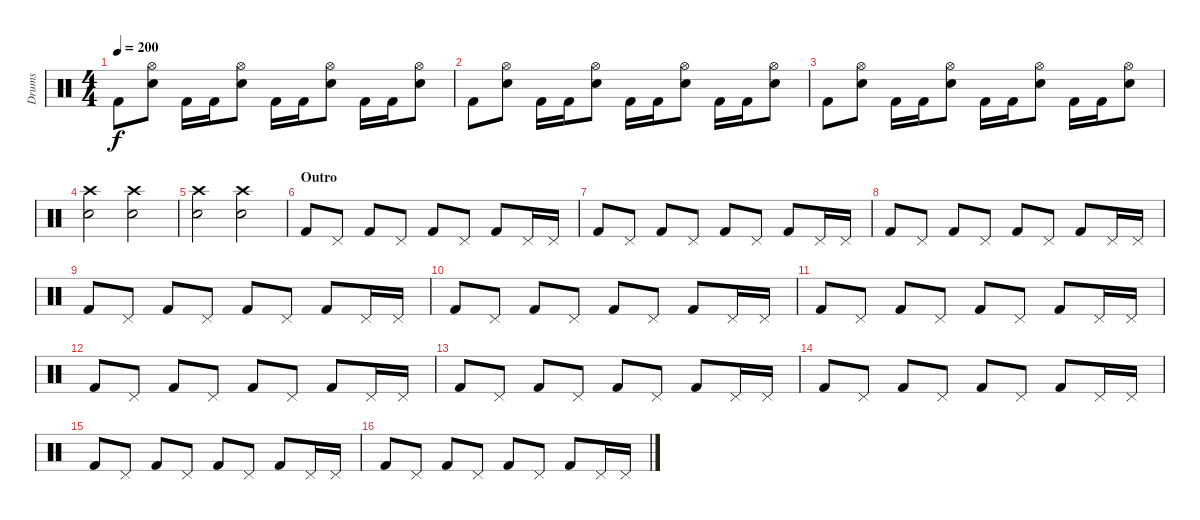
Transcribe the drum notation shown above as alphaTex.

\track ("Drums" "Drums") {instrument percussion}
\staff {score}
\articulation defaults
\ts (4 4)
\tempo 200
\clef neutral
\ks c "Kick (hit) 2".8{dy f}
("Hi-Hat (open)" "Snare (hit) 2").8 "Kick (hit) 2".16 "Kick (hit) 2".16 ("Hi-Hat (open)" "Snare (hit) 2").8 "Kick (hit) 2".16 "Kick (hit) 2".16 ("Hi-Hat (open)" "Snare (hit) 2").8 "Kick (hit) 2".16 "Kick (hit) 2".16 ("Hi-Hat (open)" "Snare (hit) 2").8 |
"Kick (hit) 2".8 ("Hi-Hat (open)" "Snare (hit) 2").8 "Kick (hit) 2".16 "Kick (hit) 2".16 ("Hi-Hat (open)" "Snare (hit) 2").8 "Kick (hit) 2".16 "Kick (hit) 2".16 ("Hi-Hat (open)" "Snare (hit) 2").8 "Kick (hit) 2".16 "Kick (hit) 2".16 ("Hi-Hat (open)" "Snare (hit) 2").8 |
"Kick (hit) 2".8 ("Hi-Hat (open)" "Snare (hit) 2").8 "Kick (hit) 2".16 "Kick (hit) 2".16 ("Hi-Hat (open)" "Snare (hit) 2").8 "Kick (hit) 2".16 "Kick (hit) 2".16 ("Hi-Hat (open)" "Snare (hit) 2").8 "Kick (hit) 2".16 "Kick (hit) 2".16 ("Hi-Hat (open)" "Snare (hit) 2").8 |
("Crash high (hit)" "Snare (hit) 2").2 ("Crash high (hit)" "Snare (hit) 2").2 |
("Crash high (hit)" "Snare (hit) 2").2 ("Crash high (hit)" "Snare (hit) 2").2 |
\section ("" "Outro")
"Kick (hit) 2".8 "Pedal Hi-Hat (hit)".8 "Kick (hit) 2".8 "Pedal Hi-Hat (hit)".8 "Kick (hit) 2".8 "Pedal Hi-Hat (hit)".8 "Kick (hit) 2".8 "Pedal Hi-Hat (hit)".16 "Pedal Hi-Hat (hit)".16 |
"Kick (hit) 2".8 "Pedal Hi-Hat (hit)".8 "Kick (hit) 2".8 "Pedal Hi-Hat (hit)".8 "Kick (hit) 2".8 "Pedal Hi-Hat (hit)".8 "Kick (hit) 2".8 "Pedal Hi-Hat (hit)".16 "Pedal Hi-Hat (hit)".16 |
"Kick (hit) 2".8 "Pedal Hi-Hat (hit)".8 "Kick (hit) 2".8 "Pedal Hi-Hat (hit)".8 "Kick (hit) 2".8 "Pedal Hi-Hat (hit)".8 "Kick (hit) 2".8 "Pedal Hi-Hat (hit)".16 "Pedal Hi-Hat (hit)".16 |
"Kick (hit) 2".8 "Pedal Hi-Hat (hit)".8 "Kick (hit) 2".8 "Pedal Hi-Hat (hit)".8 "Kick (hit) 2".8 "Pedal Hi-Hat (hit)".8 "Kick (hit) 2".8 "Pedal Hi-Hat (hit)".16 "Pedal Hi-Hat (hit)".16 |
"Kick (hit) 2".8 "Pedal Hi-Hat (hit)".8 "Kick (hit) 2".8 "Pedal Hi-Hat (hit)".8 "Kick (hit) 2".8 "Pedal Hi-Hat (hit)".8 "Kick (hit) 2".8 "Pedal Hi-Hat (hit)".16 "Pedal Hi-Hat (hit)".16 |
"Kick (hit) 2".8 "Pedal Hi-Hat (hit)".8 "Kick (hit) 2".8 "Pedal Hi-Hat (hit)".8 "Kick (hit) 2".8 "Pedal Hi-Hat (hit)".8 "Kick (hit) 2".8 "Pedal Hi-Hat (hit)".16 "Pedal Hi-Hat (hit)".16 |
"Kick (hit) 2".8 "Pedal Hi-Hat (hit)".8 "Kick (hit) 2".8 "Pedal Hi-Hat (hit)".8 "Kick (hit) 2".8 "Pedal Hi-Hat (hit)".8 "Kick (hit) 2".8 "Pedal Hi-Hat (hit)".16 "Pedal Hi-Hat (hit)".16 |
"Kick (hit) 2".8 "Pedal Hi-Hat (hit)".8 "Kick (hit) 2".8 "Pedal Hi-Hat (hit)".8 "Kick (hit) 2".8 "Pedal Hi-Hat (hit)".8 "Kick (hit) 2".8 "Pedal Hi-Hat (hit)".16 "Pedal Hi-Hat (hit)".16 |
"Kick (hit) 2".8 "Pedal Hi-Hat (hit)".8 "Kick (hit) 2".8 "Pedal Hi-Hat (hit)".8 "Kick (hit) 2".8 "Pedal Hi-Hat (hit)".8 "Kick (hit) 2".8 "Pedal Hi-Hat (hit)".16 "Pedal Hi-Hat (hit)".16 |
"Kick (hit) 2".8 "Pedal Hi-Hat (hit)".8 "Kick (hit) 2".8 "Pedal Hi-Hat (hit)".8 "Kick (hit) 2".8 "Pedal Hi-Hat (hit)".8 "Kick (hit) 2".8 "Pedal Hi-Hat (hit)".16 "Pedal Hi-Hat (hit)".16 |
"Kick (hit) 2".8 "Pedal Hi-Hat (hit)".8 "Kick (hit) 2".8 "Pedal Hi-Hat (hit)".8 "Kick (hit) 2".8 "Pedal Hi-Hat (hit)".8 "Kick (hit) 2".8 "Pedal Hi-Hat (hit)".16 "Pedal Hi-Hat (hit)".16
